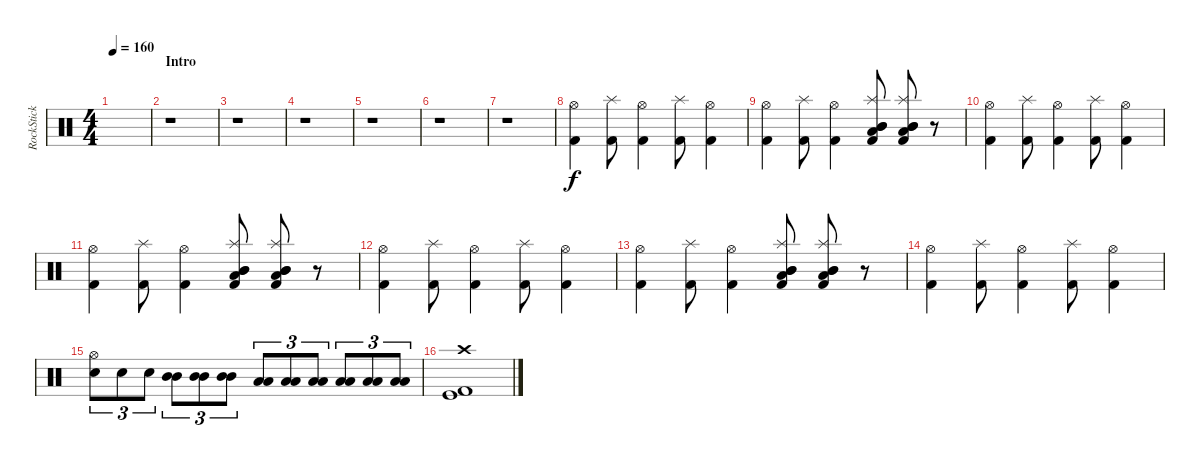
\track ("RockStick" "RockStick") {instrument percussion}
\staff {score}
\articulation defaults
\ts (4 4)
\tempo 160
\clef neutral
\ks c
|
\section ("" "Intro")
r.1 |
r.1 |
r.1 |
r.1 |
r.1 |
r.1 |
("Kick (hit) 2" "Hi-Hat (open)").4 ("Kick (hit) 2" "Splash (hit)").8 ("Kick (hit) 2" "Hi-Hat (open)").4 ("Kick (hit) 2" "Splash (hit)").8 ("Kick (hit) 2" "Hi-Hat (open)").4 |
("Kick (hit) 2" "Hi-Hat (open)").4 ("Kick (hit) 2" "Splash (hit)").8 ("Kick (hit) 2" "Hi-Hat (open)").4 ("Kick (hit) 2" "Low Tom (hit)" "Mid Tom (hit)" "Mid Tom (hit)" "Splash (hit)").8 ("Kick (hit) 2" "Low Floor Tom (hit)" "Mid Tom (hit)" "Mid Tom (hit)" "Splash (hit)").8 r.8 |
("Kick (hit) 2" "Hi-Hat (open)").4 ("Kick (hit) 2" "Splash (hit)").8 ("Kick (hit) 2" "Hi-Hat (open)").4 ("Kick (hit) 2" "Splash (hit)").8 ("Kick (hit) 2" "Hi-Hat (open)").4 |
("Kick (hit) 2" "Hi-Hat (open)").4 ("Kick (hit) 2" "Splash (hit)").8 ("Kick (hit) 2" "Hi-Hat (open)").4 ("Kick (hit) 2" "Low Tom (hit)" "Mid Tom (hit)" "Mid Tom (hit)" "Splash (hit)").8 ("Kick (hit) 2" "Low Floor Tom (hit)" "Mid Tom (hit)" "Mid Tom (hit)" "Splash (hit)").8 r.8 |
("Kick (hit) 2" "Hi-Hat (open)").4 ("Kick (hit) 2" "Splash (hit)").8 ("Kick (hit) 2" "Hi-Hat (open)").4 ("Kick (hit) 2" "Splash (hit)").8 ("Kick (hit) 2" "Hi-Hat (open)").4 |
("Kick (hit) 2" "Hi-Hat (open)").4 ("Kick (hit) 2" "Splash (hit)").8 ("Kick (hit) 2" "Hi-Hat (open)").4 ("Kick (hit) 2" "Low Tom (hit)" "Mid Tom (hit)" "Mid Tom (hit)" "Splash (hit)").8 ("Kick (hit) 2" "Low Floor Tom (hit)" "Mid Tom (hit)" "Mid Tom (hit)" "Splash (hit)").8 r.8 |
("Kick (hit) 2" "Hi-Hat (open)").4 ("Kick (hit) 2" "Splash (hit)").8 ("Kick (hit) 2" "Hi-Hat (open)").4 ("Kick (hit) 2" "Splash (hit)").8 ("Kick (hit) 2" "Hi-Hat (open)").4 |
("Electric Snare (hit)" "Hi-Hat (open)").8{tu (3 2)} "Electric Snare (hit)".8{tu (3 2)} "Electric Snare (hit)".8{tu (3 2)} ("Mid Tom (hit)" "Mid Tom (hit)").8{tu (3 2)} ("Mid Tom (hit)" "Mid Tom (hit)").8{tu (3 2)} ("Mid Tom (hit)" "Mid Tom (hit)").8{tu (3 2)} ("Low Tom (hit)" "Low Tom (hit)").8{tu (3 2)} ("Low Tom (hit)" "Low Tom (hit)").8{tu (3 2)} ("Low Tom (hit)" "Low Tom (hit)").8{tu (3 2)} ("Low Floor Tom (hit)" "Low Floor Tom (hit)").8{tu (3 2)} ("Low Floor Tom (hit)" "Low Floor Tom (hit)").8{tu (3 2)} ("Low Floor Tom (hit)" "Low Floor Tom (hit)").8{tu (3 2)} |
("Kick (hit) 2" "Kick (hit)" "Crash high (hit)").1
